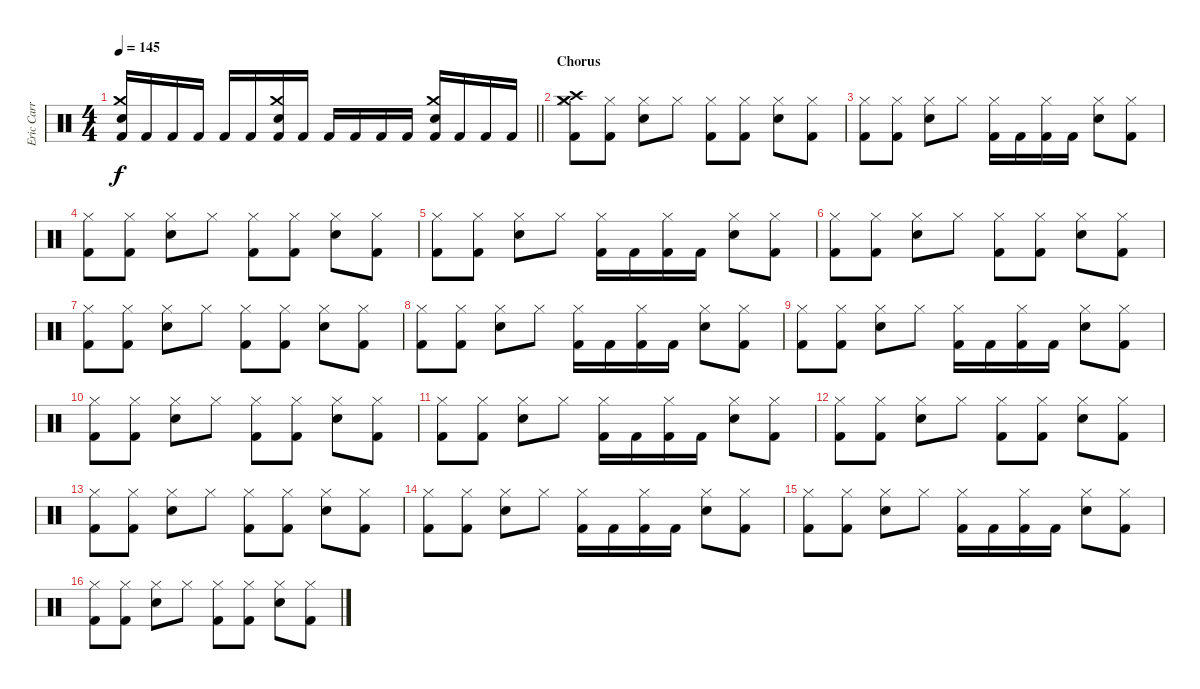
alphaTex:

\track ("Eric Carr" "Eric Carr") {instrument percussion}
\staff {score}
\articulation defaults
\ts (4 4)
\tempo 145
\clef neutral
\barLineRight lightlight
\ks c
("Snare (hit) 2" "Crash medium (hit)" "Kick (hit) 2").16{dy f} "Kick (hit) 2".16 "Kick (hit) 2".16 "Kick (hit) 2".16 "Kick (hit) 2".16 "Kick (hit) 2".16 ("Snare (hit) 2" "Crash medium (hit)" "Kick (hit) 2").16 "Kick (hit) 2".16 "Kick (hit) 2".16 "Kick (hit) 2".16 "Kick (hit) 2".16 "Kick (hit) 2".16 ("Snare (hit) 2" "Crash medium (hit)" "Kick (hit) 2").16 "Kick (hit) 2".16 "Kick (hit) 2".16 "Kick (hit) 2".16 |
\section ("" "Chorus")
("Hi-Hat (closed)" "Crash medium (hit)" "Crash high (hit)" "Kick (hit) 2").8 ("Hi-Hat (closed)" "Kick (hit) 2").8 ("Hi-Hat (closed)" "Snare (hit) 2").8 "Hi-Hat (closed)".8 ("Hi-Hat (closed)" "Kick (hit) 2").8 ("Hi-Hat (closed)" "Kick (hit) 2").8 ("Hi-Hat (closed)" "Snare (hit) 2").8 ("Hi-Hat (closed)" "Kick (hit) 2").8 |
("Hi-Hat (closed)" "Kick (hit) 2").8 ("Hi-Hat (closed)" "Kick (hit) 2").8 ("Hi-Hat (closed)" "Snare (hit) 2").8 "Hi-Hat (closed)".8 ("Hi-Hat (closed)" "Kick (hit) 2").16 "Kick (hit) 2".16 ("Hi-Hat (closed)" "Kick (hit) 2").16 "Kick (hit) 2".16 ("Hi-Hat (closed)" "Snare (hit) 2").8 ("Hi-Hat (closed)" "Kick (hit) 2").8 |
("Hi-Hat (closed)" "Kick (hit) 2").8 ("Hi-Hat (closed)" "Kick (hit) 2").8 ("Hi-Hat (closed)" "Snare (hit) 2").8 "Hi-Hat (closed)".8 ("Hi-Hat (closed)" "Kick (hit) 2").8 ("Hi-Hat (closed)" "Kick (hit) 2").8 ("Hi-Hat (closed)" "Snare (hit) 2").8 ("Hi-Hat (closed)" "Kick (hit) 2").8 |
("Hi-Hat (closed)" "Kick (hit) 2").8 ("Hi-Hat (closed)" "Kick (hit) 2").8 ("Hi-Hat (closed)" "Snare (hit) 2").8 "Hi-Hat (closed)".8 ("Hi-Hat (closed)" "Kick (hit) 2").16 "Kick (hit) 2".16 ("Hi-Hat (closed)" "Kick (hit) 2").16 "Kick (hit) 2".16 ("Hi-Hat (closed)" "Snare (hit) 2").8 ("Hi-Hat (closed)" "Kick (hit) 2").8 |
("Hi-Hat (closed)" "Kick (hit) 2").8 ("Hi-Hat (closed)" "Kick (hit) 2").8 ("Hi-Hat (closed)" "Snare (hit) 2").8 "Hi-Hat (closed)".8 ("Hi-Hat (closed)" "Kick (hit) 2").8 ("Hi-Hat (closed)" "Kick (hit) 2").8 ("Hi-Hat (closed)" "Snare (hit) 2").8 ("Hi-Hat (closed)" "Kick (hit) 2").8 |
("Hi-Hat (closed)" "Kick (hit) 2").8 ("Hi-Hat (closed)" "Kick (hit) 2").8 ("Hi-Hat (closed)" "Snare (hit) 2").8 "Hi-Hat (closed)".8 ("Hi-Hat (closed)" "Kick (hit) 2").8 ("Hi-Hat (closed)" "Kick (hit) 2").8 ("Hi-Hat (closed)" "Snare (hit) 2").8 ("Hi-Hat (closed)" "Kick (hit) 2").8 |
("Hi-Hat (closed)" "Kick (hit) 2").8 ("Hi-Hat (closed)" "Kick (hit) 2").8 ("Hi-Hat (closed)" "Snare (hit) 2").8 "Hi-Hat (closed)".8 ("Hi-Hat (closed)" "Kick (hit) 2").16 "Kick (hit) 2".16 ("Hi-Hat (closed)" "Kick (hit) 2").16 "Kick (hit) 2".16 ("Hi-Hat (closed)" "Snare (hit) 2").8 ("Hi-Hat (closed)" "Kick (hit) 2").8 |
("Hi-Hat (closed)" "Kick (hit) 2").8 ("Hi-Hat (closed)" "Kick (hit) 2").8 ("Hi-Hat (closed)" "Snare (hit) 2").8 "Hi-Hat (closed)".8 ("Hi-Hat (closed)" "Kick (hit) 2").16 "Kick (hit) 2".16 ("Hi-Hat (closed)" "Kick (hit) 2").16 "Kick (hit) 2".16 ("Hi-Hat (closed)" "Snare (hit) 2").8 ("Hi-Hat (closed)" "Kick (hit) 2").8 |
("Hi-Hat (closed)" "Kick (hit) 2").8 ("Hi-Hat (closed)" "Kick (hit) 2").8 ("Hi-Hat (closed)" "Snare (hit) 2").8 "Hi-Hat (closed)".8 ("Hi-Hat (closed)" "Kick (hit) 2").8 ("Hi-Hat (closed)" "Kick (hit) 2").8 ("Hi-Hat (closed)" "Snare (hit) 2").8 ("Hi-Hat (closed)" "Kick (hit) 2").8 |
("Hi-Hat (closed)" "Kick (hit) 2").8 ("Hi-Hat (closed)" "Kick (hit) 2").8 ("Hi-Hat (closed)" "Snare (hit) 2").8 "Hi-Hat (closed)".8 ("Hi-Hat (closed)" "Kick (hit) 2").16 "Kick (hit) 2".16 ("Hi-Hat (closed)" "Kick (hit) 2").16 "Kick (hit) 2".16 ("Hi-Hat (closed)" "Snare (hit) 2").8 ("Hi-Hat (closed)" "Kick (hit) 2").8 |
("Hi-Hat (closed)" "Kick (hit) 2").8 ("Hi-Hat (closed)" "Kick (hit) 2").8 ("Hi-Hat (closed)" "Snare (hit) 2").8 "Hi-Hat (closed)".8 ("Hi-Hat (closed)" "Kick (hit) 2").8 ("Hi-Hat (closed)" "Kick (hit) 2").8 ("Hi-Hat (closed)" "Snare (hit) 2").8 ("Hi-Hat (closed)" "Kick (hit) 2").8 |
("Hi-Hat (closed)" "Kick (hit) 2").8 ("Hi-Hat (closed)" "Kick (hit) 2").8 ("Hi-Hat (closed)" "Snare (hit) 2").8 "Hi-Hat (closed)".8 ("Hi-Hat (closed)" "Kick (hit) 2").8 ("Hi-Hat (closed)" "Kick (hit) 2").8 ("Hi-Hat (closed)" "Snare (hit) 2").8 ("Hi-Hat (closed)" "Kick (hit) 2").8 |
("Hi-Hat (closed)" "Kick (hit) 2").8 ("Hi-Hat (closed)" "Kick (hit) 2").8 ("Hi-Hat (closed)" "Snare (hit) 2").8 "Hi-Hat (closed)".8 ("Hi-Hat (closed)" "Kick (hit) 2").16 "Kick (hit) 2".16 ("Hi-Hat (closed)" "Kick (hit) 2").16 "Kick (hit) 2".16 ("Hi-Hat (closed)" "Snare (hit) 2").8 ("Hi-Hat (closed)" "Kick (hit) 2").8 |
("Hi-Hat (closed)" "Kick (hit) 2").8 ("Hi-Hat (closed)" "Kick (hit) 2").8 ("Hi-Hat (closed)" "Snare (hit) 2").8 "Hi-Hat (closed)".8 ("Hi-Hat (closed)" "Kick (hit) 2").16 "Kick (hit) 2".16 ("Hi-Hat (closed)" "Kick (hit) 2").16 "Kick (hit) 2".16 ("Hi-Hat (closed)" "Snare (hit) 2").8 ("Hi-Hat (closed)" "Kick (hit) 2").8 |
("Hi-Hat (closed)" "Kick (hit) 2").8 ("Hi-Hat (closed)" "Kick (hit) 2").8 ("Hi-Hat (closed)" "Snare (hit) 2").8 "Hi-Hat (closed)".8 ("Hi-Hat (closed)" "Kick (hit) 2").8 ("Hi-Hat (closed)" "Kick (hit) 2").8 ("Hi-Hat (closed)" "Snare (hit) 2").8 ("Hi-Hat (closed)" "Kick (hit) 2").8
